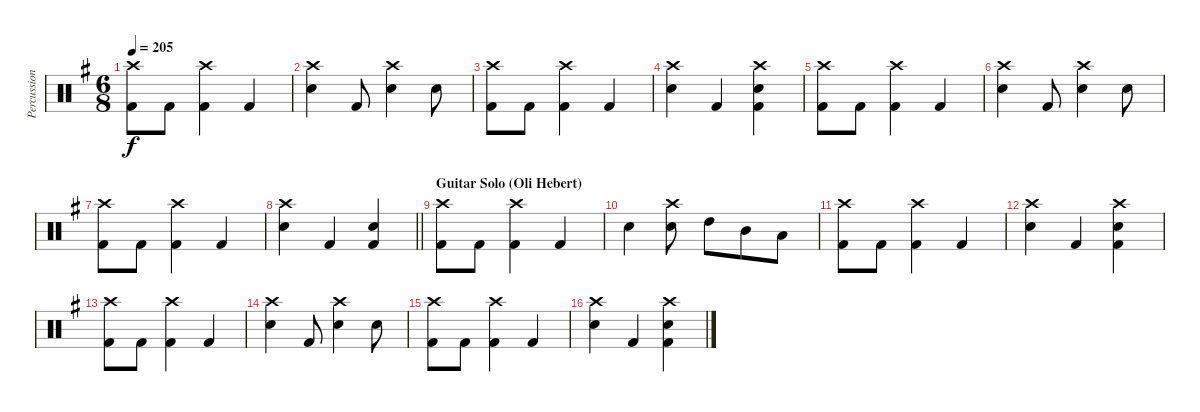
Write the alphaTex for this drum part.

\track ("Percussion" "Percussion") {instrument percussion}
\staff {score}
\articulation defaults
\ts (6 8)
\tempo 205
\clef neutral
\ks g
("Crash high (hit)" "Kick (hit) 2").8{dy f} "Kick (hit) 2".8 ("Crash high (hit)" "Kick (hit) 2").4 "Kick (hit) 2".4 |
("Crash high (hit)" "Electric Snare (hit)").4 "Kick (hit) 2".8 ("Crash high (hit)" "Electric Snare (hit)").4 "Electric Snare (hit)".8 |
("Crash high (hit)" "Kick (hit) 2").8 "Kick (hit) 2".8 ("Crash high (hit)" "Kick (hit) 2").4 "Kick (hit) 2".4 |
("Crash high (hit)" "Electric Snare (hit)").4 "Kick (hit) 2".4 ("Electric Snare (hit)" "Kick (hit) 2" "Crash high (hit)").4 |
("Crash high (hit)" "Kick (hit) 2").8 "Kick (hit) 2".8 ("Crash high (hit)" "Kick (hit) 2").4 "Kick (hit) 2".4 |
("Crash high (hit)" "Electric Snare (hit)").4 "Kick (hit) 2".8 ("Crash high (hit)" "Electric Snare (hit)").4 "Electric Snare (hit)".8 |
("Crash high (hit)" "Kick (hit) 2").8 "Kick (hit) 2".8 ("Crash high (hit)" "Kick (hit) 2").4 "Kick (hit) 2".4 |
\barLineRight lightlight
("Crash high (hit)" "Electric Snare (hit)").4 "Kick (hit) 2".4 ("Electric Snare (hit)" "Kick (hit) 2").4 |
\section ("" "Guitar Solo (Oli Hebert)")
("Crash high (hit)" "Kick (hit) 2").8 "Kick (hit) 2".8 ("Crash high (hit)" "Kick (hit) 2").4 "Kick (hit) 2".4 |
"Electric Snare (hit)".4 ("Crash high (hit)" "Electric Snare (hit)").8 "High Tom (hit)".8 "Mid Tom (hit)".8 "Low Tom (hit)".8 |
("Crash high (hit)" "Kick (hit) 2").8 "Kick (hit) 2".8 ("Crash high (hit)" "Kick (hit) 2").4 "Kick (hit) 2".4 |
("Crash high (hit)" "Electric Snare (hit)").4 "Kick (hit) 2".4 ("Electric Snare (hit)" "Kick (hit) 2" "Crash high (hit)").4 |
("Crash high (hit)" "Kick (hit) 2").8 "Kick (hit) 2".8 ("Crash high (hit)" "Kick (hit) 2").4 "Kick (hit) 2".4 |
("Crash high (hit)" "Electric Snare (hit)").4 "Kick (hit) 2".8 ("Crash high (hit)" "Electric Snare (hit)").4 "Electric Snare (hit)".8 |
("Crash high (hit)" "Kick (hit) 2").8 "Kick (hit) 2".8 ("Crash high (hit)" "Kick (hit) 2").4 "Kick (hit) 2".4 |
("Crash high (hit)" "Electric Snare (hit)").4 "Kick (hit) 2".4 ("Electric Snare (hit)" "Kick (hit) 2" "Crash high (hit)").4
